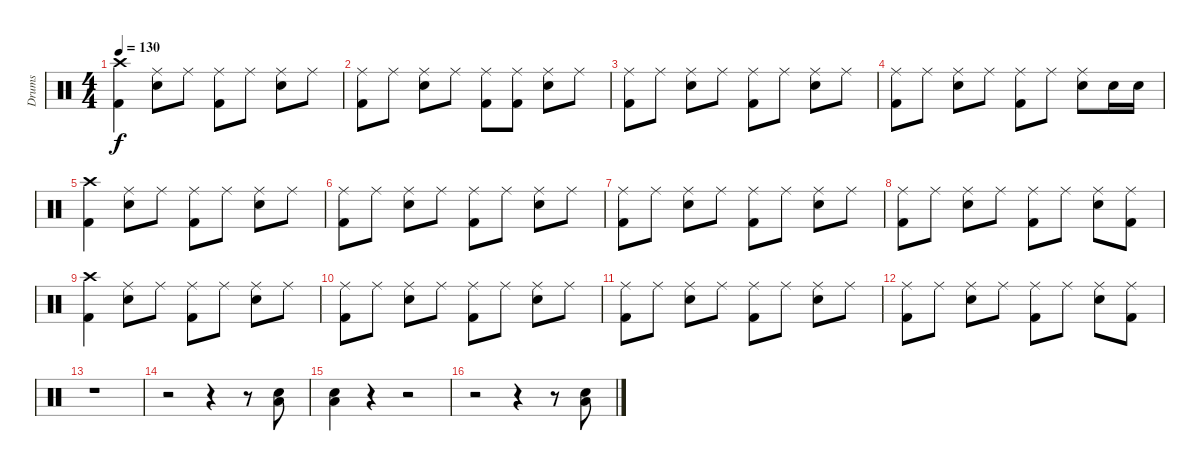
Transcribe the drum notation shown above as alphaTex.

\track ("Drums" "Drums") {instrument percussion}
\staff {score}
\articulation defaults
\ts (4 4)
\tempo 130
\clef neutral
\ks c
("Crash high (hit)" "Kick (hit) 2").4{dy f} ("Ride (middle)" "Electric Snare (hit)").8 "Ride (middle)".8 ("Ride (middle)" "Kick (hit) 2").8 "Ride (middle)".8 ("Ride (middle)" "Electric Snare (hit)").8 "Ride (middle)".8 |
("Ride (middle)" "Kick (hit) 2").8 "Ride (middle)".8 ("Ride (middle)" "Electric Snare (hit)").8 "Ride (middle)".8 ("Ride (middle)" "Kick (hit) 2").8 ("Ride (middle)" "Kick (hit) 2").8 ("Ride (middle)" "Electric Snare (hit)").8 "Ride (middle)".8 |
("Ride (middle)" "Kick (hit) 2").8 "Ride (middle)".8 ("Ride (middle)" "Electric Snare (hit)").8 "Ride (middle)".8 ("Ride (middle)" "Kick (hit) 2").8 "Ride (middle)".8 ("Ride (middle)" "Electric Snare (hit)").8 "Ride (middle)".8 |
("Ride (middle)" "Kick (hit) 2").8 "Ride (middle)".8 ("Ride (middle)" "Electric Snare (hit)").8 "Ride (middle)".8 ("Ride (middle)" "Kick (hit) 2").8 "Ride (middle)".8 ("Ride (middle)" "Electric Snare (hit)").8 "Electric Snare (hit)".16 "Electric Snare (hit)".16 |
("Crash high (hit)" "Kick (hit) 2").4 ("Ride (middle)" "Electric Snare (hit)").8 "Ride (middle)".8 ("Ride (middle)" "Kick (hit) 2").8 "Ride (middle)".8 ("Ride (middle)" "Electric Snare (hit)").8 "Ride (middle)".8 |
("Ride (middle)" "Kick (hit) 2").8 "Ride (middle)".8 ("Ride (middle)" "Electric Snare (hit)").8 "Ride (middle)".8 ("Ride (middle)" "Kick (hit) 2").8 "Ride (middle)".8 ("Ride (middle)" "Electric Snare (hit)").8 "Ride (middle)".8 |
("Ride (middle)" "Kick (hit) 2").8 "Ride (middle)".8 ("Ride (middle)" "Electric Snare (hit)").8 "Ride (middle)".8 ("Ride (middle)" "Kick (hit) 2").8 "Ride (middle)".8 ("Ride (middle)" "Electric Snare (hit)").8 "Ride (middle)".8 |
("Ride (middle)" "Kick (hit) 2").8 "Ride (middle)".8 ("Ride (middle)" "Electric Snare (hit)").8 "Ride (middle)".8 ("Ride (middle)" "Kick (hit) 2").8 "Ride (middle)".8 ("Ride (middle)" "Electric Snare (hit)").8 ("Ride (middle)" "Kick (hit) 2").8 |
("Crash high (hit)" "Kick (hit) 2").4 ("Ride (middle)" "Electric Snare (hit)").8 "Ride (middle)".8 ("Ride (middle)" "Kick (hit) 2").8 "Ride (middle)".8 ("Ride (middle)" "Electric Snare (hit)").8 "Ride (middle)".8 |
("Ride (middle)" "Kick (hit) 2").8 "Ride (middle)".8 ("Ride (middle)" "Electric Snare (hit)").8 "Ride (middle)".8 ("Ride (middle)" "Kick (hit) 2").8 "Ride (middle)".8 ("Ride (middle)" "Electric Snare (hit)").8 "Ride (middle)".8 |
("Ride (middle)" "Kick (hit) 2").8 "Ride (middle)".8 ("Ride (middle)" "Electric Snare (hit)").8 "Ride (middle)".8 ("Ride (middle)" "Kick (hit) 2").8 "Ride (middle)".8 ("Ride (middle)" "Electric Snare (hit)").8 "Ride (middle)".8 |
("Ride (middle)" "Kick (hit) 2").8 "Ride (middle)".8 ("Ride (middle)" "Electric Snare (hit)").8 "Ride (middle)".8 ("Ride (middle)" "Kick (hit) 2").8 "Ride (middle)".8 ("Ride (middle)" "Electric Snare (hit)").8 ("Ride (middle)" "Kick (hit) 2").8 |
r.1 |
r.2 r.4 r.8 ("Electric Snare (hit)" "Low Tom (hit)").8 |
("Electric Snare (hit)" "Low Tom (hit)").4 r.4 r.2 |
r.2 r.4 r.8 ("Electric Snare (hit)" "Low Tom (hit)").8
